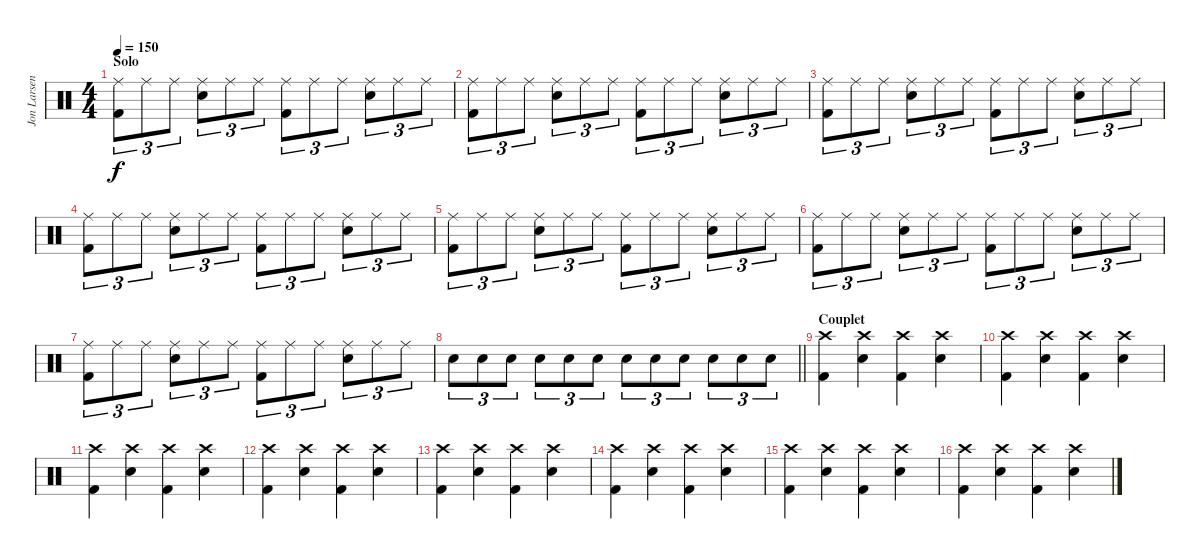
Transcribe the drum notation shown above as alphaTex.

\track ("Jon Larsen" "Jon Larsen") {instrument percussion}
\staff {score}
\articulation defaults
\ts (4 4)
\section ("" "Solo")
\tempo 150
\clef neutral
\ks c
("Kick (hit) 2" "Ride (middle)").8{tu (3 2) dy f} "Ride (middle)".8{tu (3 2)} "Ride (middle)".8{tu (3 2)} ("Snare (hit) 2" "Ride (middle)").8{tu (3 2)} "Ride (middle)".8{tu (3 2)} "Ride (middle)".8{tu (3 2)} ("Kick (hit) 2" "Ride (middle)").8{tu (3 2)} "Ride (middle)".8{tu (3 2)} "Ride (middle)".8{tu (3 2)} ("Snare (hit) 2" "Ride (middle)").8{tu (3 2)} "Ride (middle)".8{tu (3 2)} "Ride (middle)".8{tu (3 2)} |
("Kick (hit) 2" "Ride (middle)").8{tu (3 2)} "Ride (middle)".8{tu (3 2)} "Ride (middle)".8{tu (3 2)} ("Snare (hit) 2" "Ride (middle)").8{tu (3 2)} "Ride (middle)".8{tu (3 2)} "Ride (middle)".8{tu (3 2)} ("Kick (hit) 2" "Ride (middle)").8{tu (3 2)} "Ride (middle)".8{tu (3 2)} "Ride (middle)".8{tu (3 2)} ("Snare (hit) 2" "Ride (middle)").8{tu (3 2)} "Ride (middle)".8{tu (3 2)} "Ride (middle)".8{tu (3 2)} |
("Kick (hit) 2" "Ride (middle)").8{tu (3 2)} "Ride (middle)".8{tu (3 2)} "Ride (middle)".8{tu (3 2)} ("Snare (hit) 2" "Ride (middle)").8{tu (3 2)} "Ride (middle)".8{tu (3 2)} "Ride (middle)".8{tu (3 2)} ("Kick (hit) 2" "Ride (middle)").8{tu (3 2)} "Ride (middle)".8{tu (3 2)} "Ride (middle)".8{tu (3 2)} ("Snare (hit) 2" "Ride (middle)").8{tu (3 2)} "Ride (middle)".8{tu (3 2)} "Ride (middle)".8{tu (3 2)} |
("Kick (hit) 2" "Ride (middle)").8{tu (3 2)} "Ride (middle)".8{tu (3 2)} "Ride (middle)".8{tu (3 2)} ("Snare (hit) 2" "Ride (middle)").8{tu (3 2)} "Ride (middle)".8{tu (3 2)} "Ride (middle)".8{tu (3 2)} ("Kick (hit) 2" "Ride (middle)").8{tu (3 2)} "Ride (middle)".8{tu (3 2)} "Ride (middle)".8{tu (3 2)} ("Snare (hit) 2" "Ride (middle)").8{tu (3 2)} "Ride (middle)".8{tu (3 2)} "Ride (middle)".8{tu (3 2)} |
("Kick (hit) 2" "Ride (middle)").8{tu (3 2)} "Ride (middle)".8{tu (3 2)} "Ride (middle)".8{tu (3 2)} ("Snare (hit) 2" "Ride (middle)").8{tu (3 2)} "Ride (middle)".8{tu (3 2)} "Ride (middle)".8{tu (3 2)} ("Kick (hit) 2" "Ride (middle)").8{tu (3 2)} "Ride (middle)".8{tu (3 2)} "Ride (middle)".8{tu (3 2)} ("Snare (hit) 2" "Ride (middle)").8{tu (3 2)} "Ride (middle)".8{tu (3 2)} "Ride (middle)".8{tu (3 2)} |
("Kick (hit) 2" "Ride (middle)").8{tu (3 2)} "Ride (middle)".8{tu (3 2)} "Ride (middle)".8{tu (3 2)} ("Snare (hit) 2" "Ride (middle)").8{tu (3 2)} "Ride (middle)".8{tu (3 2)} "Ride (middle)".8{tu (3 2)} ("Kick (hit) 2" "Ride (middle)").8{tu (3 2)} "Ride (middle)".8{tu (3 2)} "Ride (middle)".8{tu (3 2)} ("Snare (hit) 2" "Ride (middle)").8{tu (3 2)} "Ride (middle)".8{tu (3 2)} "Ride (middle)".8{tu (3 2)} |
("Kick (hit) 2" "Ride (middle)").8{tu (3 2)} "Ride (middle)".8{tu (3 2)} "Ride (middle)".8{tu (3 2)} ("Snare (hit) 2" "Ride (middle)").8{tu (3 2)} "Ride (middle)".8{tu (3 2)} "Ride (middle)".8{tu (3 2)} ("Kick (hit) 2" "Ride (middle)").8{tu (3 2)} "Ride (middle)".8{tu (3 2)} "Ride (middle)".8{tu (3 2)} ("Snare (hit) 2" "Ride (middle)").8{tu (3 2)} "Ride (middle)".8{tu (3 2)} "Ride (middle)".8{tu (3 2)} |
\barLineRight lightlight "Snare (hit) 2".8{tu (3 2)} "Snare (hit) 2".8{tu (3 2)} "Snare (hit) 2".8{tu (3 2)} "Snare (hit) 2".8{tu (3 2)} "Snare (hit) 2".8{tu (3 2)} "Snare (hit) 2".8{tu (3 2)} "Snare (hit) 2".8{tu (3 2)} "Snare (hit) 2".8{tu (3 2)} "Snare (hit) 2".8{tu (3 2)} "Snare (hit) 2".8{tu (3 2)} "Snare (hit) 2".8{tu (3 2)} "Snare (hit) 2".8{tu (3 2)}
|
\section ("" "Couplet")
("Kick (hit) 2" "Crash high (hit)").4 ("Snare (hit) 2" "Crash high (hit)").4 ("Kick (hit) 2" "Crash high (hit)").4 ("Snare (hit) 2" "Crash high (hit)").4 |
("Kick (hit) 2" "Crash high (hit)").4 ("Snare (hit) 2" "Crash high (hit)").4 ("Kick (hit) 2" "Crash high (hit)").4 ("Snare (hit) 2" "Crash high (hit)").4 |
("Kick (hit) 2" "Crash high (hit)").4 ("Snare (hit) 2" "Crash high (hit)").4 ("Kick (hit) 2" "Crash high (hit)").4 ("Snare (hit) 2" "Crash high (hit)").4 |
("Kick (hit) 2" "Crash high (hit)").4 ("Snare (hit) 2" "Crash high (hit)").4 ("Kick (hit) 2" "Crash high (hit)").4 ("Snare (hit) 2" "Crash high (hit)").4 |
("Kick (hit) 2" "Crash high (hit)").4 ("Snare (hit) 2" "Crash high (hit)").4 ("Kick (hit) 2" "Crash high (hit)").4 ("Snare (hit) 2" "Crash high (hit)").4 |
("Kick (hit) 2" "Crash high (hit)").4 ("Snare (hit) 2" "Crash high (hit)").4 ("Kick (hit) 2" "Crash high (hit)").4 ("Snare (hit) 2" "Crash high (hit)").4 |
("Kick (hit) 2" "Crash high (hit)").4 ("Snare (hit) 2" "Crash high (hit)").4 ("Kick (hit) 2" "Crash high (hit)").4 ("Snare (hit) 2" "Crash high (hit)").4 |
("Kick (hit) 2" "Crash high (hit)").4 ("Snare (hit) 2" "Crash high (hit)").4 ("Kick (hit) 2" "Crash high (hit)").4 ("Snare (hit) 2" "Crash high (hit)").4
